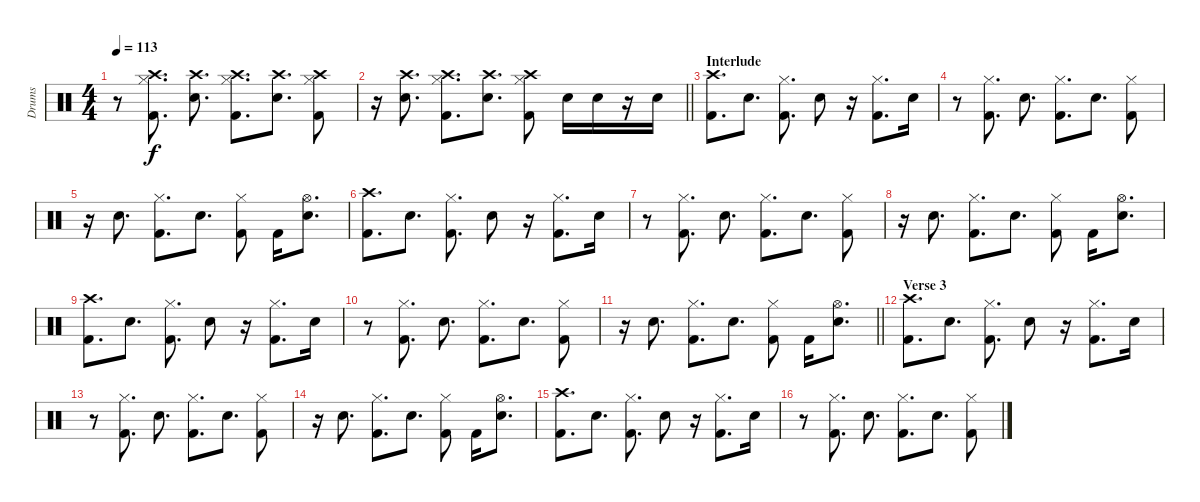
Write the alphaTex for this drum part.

\track ("Drums" "Drums") {instrument percussion}
\staff {score}
\articulation defaults
\ts (4 4)
\tempo 113
\clef neutral
\ks c
r.8{dy f} ("Crash high (hit)" "Hi-Hat (closed)" "Kick (hit) 2").8{d} ("Crash high (hit)" "Electric Snare (hit)").8{d} ("Crash high (hit)" "Hi-Hat (closed)" "Kick (hit) 2").8{d} ("Crash high (hit)" "Electric Snare (hit)").8{d} ("Crash high (hit)" "Hi-Hat (closed)" "Kick (hit) 2").8 |
\barLineRight lightlight
r.16 ("Crash high (hit)" "Electric Snare (hit)").8{d} ("Crash high (hit)" "Hi-Hat (closed)" "Kick (hit) 2").8{d} ("Crash high (hit)" "Electric Snare (hit)").8{d} ("Crash high (hit)" "Hi-Hat (closed)" "Kick (hit) 2").8 "Electric Snare (hit)".16 "Electric Snare (hit)".16 r.16 "Electric Snare (hit)".16 |
\section ("" "Interlude")
("Crash high (hit)" "Kick (hit) 2").8{d} "Electric Snare (hit)".8{d} ("Hi-Hat (closed)" "Kick (hit) 2").8{d} "Electric Snare (hit)".8 r.16 ("Hi-Hat (closed)" "Kick (hit) 2").8{d} "Electric Snare (hit)".16 |
r.8 ("Hi-Hat (closed)" "Kick (hit) 2").8{d} "Electric Snare (hit)".8{d} ("Hi-Hat (closed)" "Kick (hit) 2").8{d} "Electric Snare (hit)".8{d} ("Hi-Hat (closed)" "Kick (hit) 2").8 |
r.16 "Electric Snare (hit)".8{d} ("Hi-Hat (closed)" "Kick (hit) 2").8{d} "Electric Snare (hit)".8{d} ("Hi-Hat (closed)" "Kick (hit) 2").8 "Kick (hit) 2".16 ("Hi-Hat (open)" "Electric Snare (hit)").8{d} |
("Crash high (hit)" "Kick (hit) 2").8{d} "Electric Snare (hit)".8{d} ("Hi-Hat (closed)" "Kick (hit) 2").8{d} "Electric Snare (hit)".8 r.16 ("Hi-Hat (closed)" "Kick (hit) 2").8{d} "Electric Snare (hit)".16 |
r.8 ("Hi-Hat (closed)" "Kick (hit) 2").8{d} "Electric Snare (hit)".8{d} ("Hi-Hat (closed)" "Kick (hit) 2").8{d} "Electric Snare (hit)".8{d} ("Hi-Hat (closed)" "Kick (hit) 2").8 |
r.16 "Electric Snare (hit)".8{d} ("Hi-Hat (closed)" "Kick (hit) 2").8{d} "Electric Snare (hit)".8{d} ("Hi-Hat (closed)" "Kick (hit) 2").8 "Kick (hit) 2".16 ("Hi-Hat (open)" "Electric Snare (hit)").8{d} |
("Crash high (hit)" "Kick (hit) 2").8{d} "Electric Snare (hit)".8{d} ("Hi-Hat (closed)" "Kick (hit) 2").8{d} "Electric Snare (hit)".8 r.16 ("Hi-Hat (closed)" "Kick (hit) 2").8{d} "Electric Snare (hit)".16 |
r.8 ("Hi-Hat (closed)" "Kick (hit) 2").8{d} "Electric Snare (hit)".8{d} ("Hi-Hat (closed)" "Kick (hit) 2").8{d} "Electric Snare (hit)".8{d} ("Hi-Hat (closed)" "Kick (hit) 2").8 |
\barLineRight lightlight
r.16 "Electric Snare (hit)".8{d} ("Hi-Hat (closed)" "Kick (hit) 2").8{d} "Electric Snare (hit)".8{d} ("Hi-Hat (closed)" "Kick (hit) 2").8 "Kick (hit) 2".16 ("Hi-Hat (open)" "Electric Snare (hit)").8{d} |
\section ("" "Verse 3")
("Crash high (hit)" "Kick (hit) 2").8{d} "Electric Snare (hit)".8{d} ("Hi-Hat (closed)" "Kick (hit) 2").8{d} "Electric Snare (hit)".8 r.16 ("Hi-Hat (closed)" "Kick (hit) 2").8{d} "Electric Snare (hit)".16 |
r.8 ("Hi-Hat (closed)" "Kick (hit) 2").8{d} "Electric Snare (hit)".8{d} ("Hi-Hat (closed)" "Kick (hit) 2").8{d} "Electric Snare (hit)".8{d} ("Hi-Hat (closed)" "Kick (hit) 2").8 |
r.16 "Electric Snare (hit)".8{d} ("Hi-Hat (closed)" "Kick (hit) 2").8{d} "Electric Snare (hit)".8{d} ("Hi-Hat (closed)" "Kick (hit) 2").8 "Kick (hit) 2".16 ("Hi-Hat (open)" "Electric Snare (hit)").8{d} |
("Crash high (hit)" "Kick (hit) 2").8{d} "Electric Snare (hit)".8{d} ("Hi-Hat (closed)" "Kick (hit) 2").8{d} "Electric Snare (hit)".8 r.16 ("Hi-Hat (closed)" "Kick (hit) 2").8{d} "Electric Snare (hit)".16 |
r.8 ("Hi-Hat (closed)" "Kick (hit) 2").8{d} "Electric Snare (hit)".8{d} ("Hi-Hat (closed)" "Kick (hit) 2").8{d} "Electric Snare (hit)".8{d} ("Hi-Hat (closed)" "Kick (hit) 2").8
